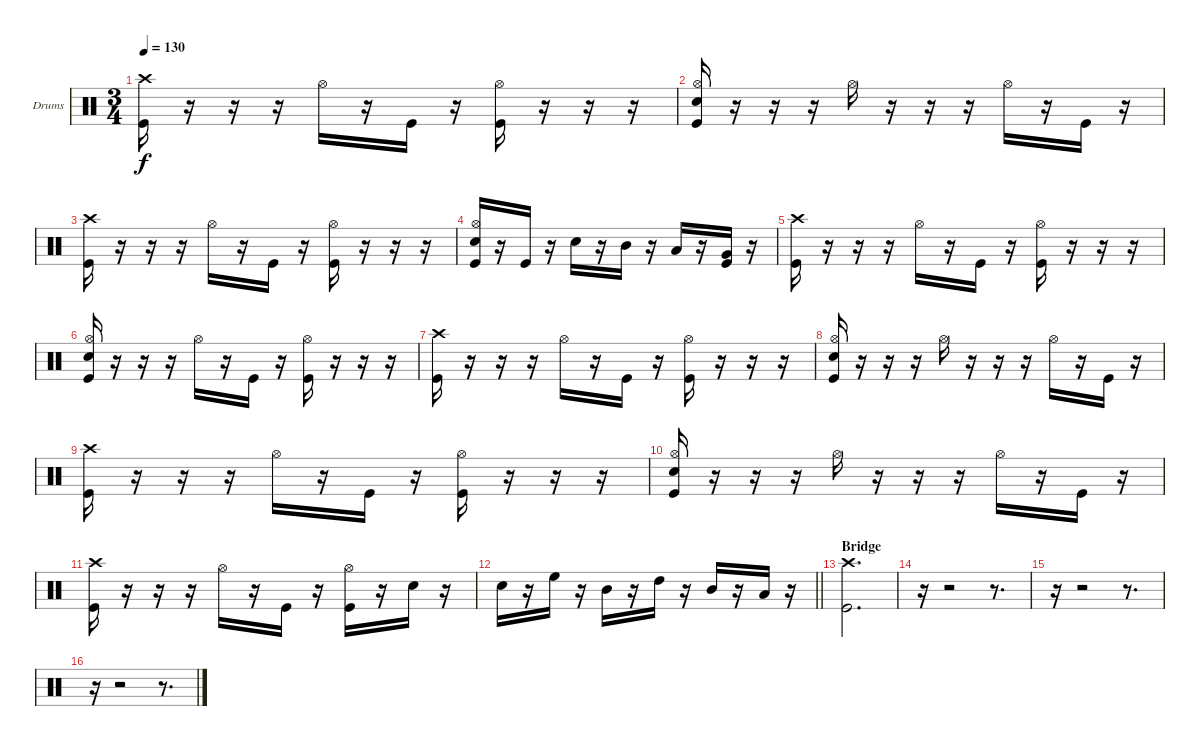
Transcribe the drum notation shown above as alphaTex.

\bracketExtendMode groupsimilarinstruments
\firstSystemTrackNameOrientation horizontal
\otherSystemsTrackNameOrientation horizontal
\track ("Drumkit" "Drums") {instrument percussion}
\staff {score}
\articulation defaults
\ts (3 4)
\tempo 130
\clef neutral
\ks c
("Kick (hit)" "Crash high (hit)").16{dy f} r.16 r.16 r.16 "Hi-Hat (open)".16 r.16 "Kick (hit)".16 r.16 ("Kick (hit)" "Hi-Hat (open)").16 r.16 r.16 r.16 |
("Kick (hit)" "Snare (hit) 2" "Hi-Hat (open)").16 r.16 r.16 r.16 "Hi-Hat (open)".16 r.16 r.16 r.16 "Hi-Hat (open)".16 r.16 "Kick (hit)".16 r.16 |
("Kick (hit)" "Crash high (hit)").16 r.16 r.16 r.16 "Hi-Hat (open)".16 r.16 "Kick (hit)".16 r.16 ("Kick (hit)" "Hi-Hat (open)").16 r.16 r.16 r.16 |
("Kick (hit)" "Snare (hit) 2" "Hi-Hat (open)").16 r.16 "Kick (hit)".16 r.16 "Snare (hit) 2".16 r.16 "Mid Tom (hit)".16 r.16 "Low Tom (hit)".16 r.16 ("Kick (hit)" "Very Low Tom (hit)").16 r.16 |
("Kick (hit)" "Crash high (hit)").16 r.16 r.16 r.16 "Hi-Hat (open)".16 r.16 "Kick (hit)".16 r.16 ("Kick (hit)" "Hi-Hat (open)").16 r.16 r.16 r.16 |
("Kick (hit)" "Snare (hit) 2" "Hi-Hat (open)").16 r.16 r.16 r.16 "Hi-Hat (open)".16 r.16 "Kick (hit)".16 r.16 ("Kick (hit)" "Hi-Hat (open)").16 r.16 r.16 r.16 |
("Kick (hit)" "Crash high (hit)").16 r.16 r.16 r.16 "Hi-Hat (open)".16 r.16 "Kick (hit)".16 r.16 ("Kick (hit)" "Hi-Hat (open)").16 r.16 r.16 r.16 |
("Kick (hit)" "Snare (hit) 2" "Hi-Hat (open)").16 r.16 r.16 r.16 "Hi-Hat (open)".16 r.16 r.16 r.16 "Hi-Hat (open)".16 r.16 "Kick (hit)".16 r.16 |
("Kick (hit)" "Crash high (hit)").16 r.16 r.16 r.16 "Hi-Hat (open)".16 r.16 "Kick (hit)".16 r.16 ("Kick (hit)" "Hi-Hat (open)").16 r.16 r.16 r.16 |
("Kick (hit)" "Snare (hit) 2" "Hi-Hat (open)").16 r.16 r.16 r.16 "Hi-Hat (open)".16 r.16 r.16 r.16 "Hi-Hat (open)".16 r.16 "Kick (hit)".16 r.16 |
("Kick (hit)" "Crash high (hit)").16 r.16 r.16 r.16 "Hi-Hat (open)".16 r.16 "Kick (hit)".16 r.16 ("Kick (hit)" "Hi-Hat (open)").16 r.16 "Snare (hit) 2".16 r.16 |
\barLineRight lightlight "Snare (hit) 2".16
r.16 "High Floor Tom (hit)".16 r.16 "Mid Tom (hit)".16 r.16 "High Tom (hit)".16 r.16 "Mid Tom (hit)".16 r.16 "Low Tom (hit)".16 r.16 |
\section ("" "Bridge")
("Kick (hit)" "Crash high (hit)").2{d} |
r.16 r.2 r.8{d} |
r.16 r.2 r.8{d} |
r.16 r.2 r.8{d}
